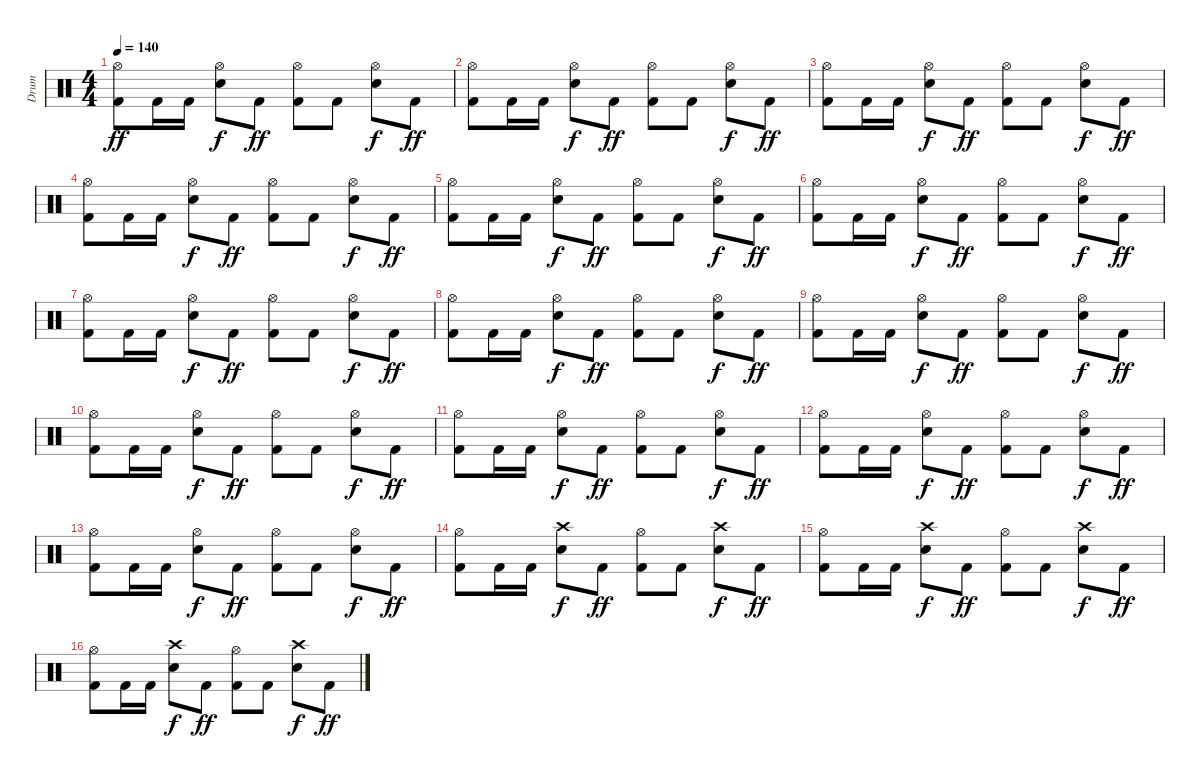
\track ("Drum" "Drum") {instrument percussion}
\staff {score}
\articulation defaults
\ts (4 4)
\tempo 140
\clef neutral
\ks c
("Hi-Hat (open)" "Kick (hit) 2").8{dy ff} "Kick (hit) 2".16 "Kick (hit) 2".16 ("Hi-Hat (open)" "Snare (hit) 2").8{dy f} "Kick (hit) 2".8{dy ff} ("Hi-Hat (open)" "Kick (hit) 2").8 "Kick (hit) 2".8 ("Hi-Hat (open)" "Snare (hit) 2").8{dy f} "Kick (hit) 2".8{dy ff} |
("Hi-Hat (open)" "Kick (hit) 2").8 "Kick (hit) 2".16 "Kick (hit) 2".16 ("Hi-Hat (open)" "Snare (hit) 2").8{dy f} "Kick (hit) 2".8{dy ff} ("Hi-Hat (open)" "Kick (hit) 2").8 "Kick (hit) 2".8 ("Hi-Hat (open)" "Snare (hit) 2").8{dy f} "Kick (hit) 2".8{dy ff} |
("Hi-Hat (open)" "Kick (hit) 2").8 "Kick (hit) 2".16 "Kick (hit) 2".16 ("Hi-Hat (open)" "Snare (hit) 2").8{dy f} "Kick (hit) 2".8{dy ff} ("Hi-Hat (open)" "Kick (hit) 2").8 "Kick (hit) 2".8 ("Hi-Hat (open)" "Snare (hit) 2").8{dy f} "Kick (hit) 2".8{dy ff} |
("Hi-Hat (open)" "Kick (hit) 2").8 "Kick (hit) 2".16 "Kick (hit) 2".16 ("Hi-Hat (open)" "Snare (hit) 2").8{dy f} "Kick (hit) 2".8{dy ff} ("Hi-Hat (open)" "Kick (hit) 2").8 "Kick (hit) 2".8 ("Hi-Hat (open)" "Snare (hit) 2").8{dy f} "Kick (hit) 2".8{dy ff} |
("Hi-Hat (open)" "Kick (hit) 2").8 "Kick (hit) 2".16 "Kick (hit) 2".16 ("Hi-Hat (open)" "Snare (hit) 2").8{dy f} "Kick (hit) 2".8{dy ff} ("Hi-Hat (open)" "Kick (hit) 2").8 "Kick (hit) 2".8 ("Hi-Hat (open)" "Snare (hit) 2").8{dy f} "Kick (hit) 2".8{dy ff} |
("Hi-Hat (open)" "Kick (hit) 2").8 "Kick (hit) 2".16 "Kick (hit) 2".16 ("Hi-Hat (open)" "Snare (hit) 2").8{dy f} "Kick (hit) 2".8{dy ff} ("Hi-Hat (open)" "Kick (hit) 2").8 "Kick (hit) 2".8 ("Hi-Hat (open)" "Snare (hit) 2").8{dy f} "Kick (hit) 2".8{dy ff} |
("Hi-Hat (open)" "Kick (hit) 2").8 "Kick (hit) 2".16 "Kick (hit) 2".16 ("Hi-Hat (open)" "Snare (hit) 2").8{dy f} "Kick (hit) 2".8{dy ff} ("Hi-Hat (open)" "Kick (hit) 2").8 "Kick (hit) 2".8 ("Hi-Hat (open)" "Snare (hit) 2").8{dy f} "Kick (hit) 2".8{dy ff} |
("Hi-Hat (open)" "Kick (hit) 2").8 "Kick (hit) 2".16 "Kick (hit) 2".16 ("Hi-Hat (open)" "Snare (hit) 2").8{dy f} "Kick (hit) 2".8{dy ff} ("Hi-Hat (open)" "Kick (hit) 2").8 "Kick (hit) 2".8 ("Hi-Hat (open)" "Snare (hit) 2").8{dy f} "Kick (hit) 2".8{dy ff} |
("Hi-Hat (open)" "Kick (hit) 2").8 "Kick (hit) 2".16 "Kick (hit) 2".16 ("Hi-Hat (open)" "Snare (hit) 2").8{dy f} "Kick (hit) 2".8{dy ff} ("Hi-Hat (open)" "Kick (hit) 2").8 "Kick (hit) 2".8 ("Hi-Hat (open)" "Snare (hit) 2").8{dy f} "Kick (hit) 2".8{dy ff} |
("Hi-Hat (open)" "Kick (hit) 2").8 "Kick (hit) 2".16 "Kick (hit) 2".16 ("Hi-Hat (open)" "Snare (hit) 2").8{dy f} "Kick (hit) 2".8{dy ff} ("Hi-Hat (open)" "Kick (hit) 2").8 "Kick (hit) 2".8 ("Hi-Hat (open)" "Snare (hit) 2").8{dy f} "Kick (hit) 2".8{dy ff} |
("Hi-Hat (open)" "Kick (hit) 2").8 "Kick (hit) 2".16 "Kick (hit) 2".16 ("Hi-Hat (open)" "Snare (hit) 2").8{dy f} "Kick (hit) 2".8{dy ff} ("Hi-Hat (open)" "Kick (hit) 2").8 "Kick (hit) 2".8 ("Hi-Hat (open)" "Snare (hit) 2").8{dy f} "Kick (hit) 2".8{dy ff} |
("Hi-Hat (open)" "Kick (hit) 2").8 "Kick (hit) 2".16 "Kick (hit) 2".16 ("Hi-Hat (open)" "Snare (hit) 2").8{dy f} "Kick (hit) 2".8{dy ff} ("Hi-Hat (open)" "Kick (hit) 2").8 "Kick (hit) 2".8 ("Hi-Hat (open)" "Snare (hit) 2").8{dy f} "Kick (hit) 2".8{dy ff} |
("Hi-Hat (open)" "Kick (hit) 2").8 "Kick (hit) 2".16 "Kick (hit) 2".16 ("Hi-Hat (open)" "Snare (hit) 2").8{dy f} "Kick (hit) 2".8{dy ff} ("Hi-Hat (open)" "Kick (hit) 2").8 "Kick (hit) 2".8 ("Hi-Hat (open)" "Snare (hit) 2").8{dy f} "Kick (hit) 2".8{dy ff} |
("Hi-Hat (open)" "Kick (hit) 2").8 "Kick (hit) 2".16 "Kick (hit) 2".16 ("Crash high (hit)" "Snare (hit) 2").8{dy f} "Kick (hit) 2".8{dy ff} ("Hi-Hat (open)" "Kick (hit) 2").8 "Kick (hit) 2".8 ("Crash high (hit)" "Snare (hit) 2").8{dy f} "Kick (hit) 2".8{dy ff} |
("Hi-Hat (open)" "Kick (hit) 2").8 "Kick (hit) 2".16 "Kick (hit) 2".16 ("Crash high (hit)" "Snare (hit) 2").8{dy f} "Kick (hit) 2".8{dy ff} ("Hi-Hat (open)" "Kick (hit) 2").8 "Kick (hit) 2".8 ("Crash high (hit)" "Snare (hit) 2").8{dy f} "Kick (hit) 2".8{dy ff} |
("Hi-Hat (open)" "Kick (hit) 2").8 "Kick (hit) 2".16 "Kick (hit) 2".16 ("Crash high (hit)" "Snare (hit) 2").8{dy f} "Kick (hit) 2".8{dy ff} ("Hi-Hat (open)" "Kick (hit) 2").8 "Kick (hit) 2".8 ("Crash high (hit)" "Snare (hit) 2").8{dy f} "Kick (hit) 2".8{dy ff}
